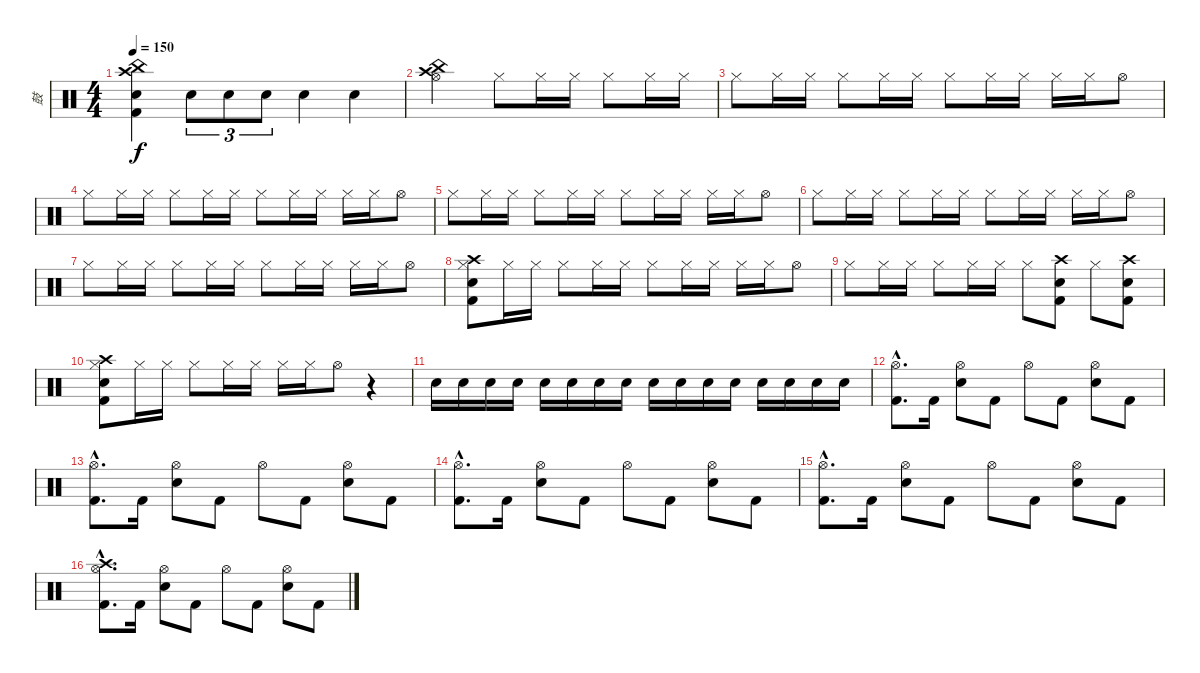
\track ("鼓" "鼓") {instrument percussion}
\staff {score}
\articulation defaults
\ts (4 4)
\tempo 150
\clef neutral
\ks c
("Snare (hit) 2" "Kick (hit) 2" "China (hit)" "Crash high (hit)").4{dy f} "Snare (hit) 2".8{tu (3 2)} "Snare (hit) 2".8{tu (3 2)} "Snare (hit) 2".8{tu (3 2)} "Snare (hit) 2".4 "Snare (hit) 2".4 |
("China (hit)" "Hi-Hat (open)" "Crash high (hit)").2 "Hi-Hat (closed)".8 "Hi-Hat (closed)".16 "Hi-Hat (closed)".16 "Hi-Hat (closed)".8 "Hi-Hat (closed)".16 "Hi-Hat (closed)".16 |
"Hi-Hat (closed)".8 "Hi-Hat (closed)".16 "Hi-Hat (closed)".16 "Hi-Hat (closed)".8 "Hi-Hat (closed)".16 "Hi-Hat (closed)".16 "Hi-Hat (closed)".8 "Hi-Hat (closed)".16 "Hi-Hat (closed)".16 "Hi-Hat (closed)".16 "Hi-Hat (closed)".16 "Hi-Hat (open)".8 |
"Hi-Hat (closed)".8 "Hi-Hat (closed)".16 "Hi-Hat (closed)".16 "Hi-Hat (closed)".8 "Hi-Hat (closed)".16 "Hi-Hat (closed)".16 "Hi-Hat (closed)".8 "Hi-Hat (closed)".16 "Hi-Hat (closed)".16 "Hi-Hat (closed)".16 "Hi-Hat (closed)".16 "Hi-Hat (open)".8 |
"Hi-Hat (closed)".8 "Hi-Hat (closed)".16 "Hi-Hat (closed)".16 "Hi-Hat (closed)".8 "Hi-Hat (closed)".16 "Hi-Hat (closed)".16 "Hi-Hat (closed)".8 "Hi-Hat (closed)".16 "Hi-Hat (closed)".16 "Hi-Hat (closed)".16 "Hi-Hat (closed)".16 "Hi-Hat (open)".8 |
"Hi-Hat (closed)".8 "Hi-Hat (closed)".16 "Hi-Hat (closed)".16 "Hi-Hat (closed)".8 "Hi-Hat (closed)".16 "Hi-Hat (closed)".16 "Hi-Hat (closed)".8 "Hi-Hat (closed)".16 "Hi-Hat (closed)".16 "Hi-Hat (closed)".16 "Hi-Hat (closed)".16 "Hi-Hat (open)".8 |
"Hi-Hat (closed)".8 "Hi-Hat (closed)".16 "Hi-Hat (closed)".16 "Hi-Hat (closed)".8 "Hi-Hat (closed)".16 "Hi-Hat (closed)".16 "Hi-Hat (closed)".8 "Hi-Hat (closed)".16 "Hi-Hat (closed)".16 "Hi-Hat (closed)".16 "Hi-Hat (closed)".16 "Hi-Hat (open)".8 |
("Snare (hit) 2" "Kick (hit) 2" "Crash high (hit)" "Hi-Hat (closed)").8 "Hi-Hat (closed)".16 "Hi-Hat (closed)".16 "Hi-Hat (closed)".8 "Hi-Hat (closed)".16 "Hi-Hat (closed)".16 "Hi-Hat (closed)".8 "Hi-Hat (closed)".16 "Hi-Hat (closed)".16 "Hi-Hat (closed)".16 "Hi-Hat (closed)".16 "Hi-Hat (open)".8 |
"Hi-Hat (closed)".8 "Hi-Hat (closed)".16 "Hi-Hat (closed)".16 "Hi-Hat (closed)".8 "Hi-Hat (closed)".16 "Hi-Hat (closed)".16 "Hi-Hat (closed)".8 ("Kick (hit) 2" "Snare (hit) 2" "Crash high (hit)").8 "Hi-Hat (closed)".8 ("Crash high (hit)" "Snare (hit) 2" "Kick (hit) 2").8 |
("Snare (hit) 2" "Kick (hit) 2" "Crash high (hit)" "Hi-Hat (closed)").8 "Hi-Hat (closed)".16 "Hi-Hat (closed)".16 "Hi-Hat (closed)".8 "Hi-Hat (closed)".16 "Hi-Hat (closed)".16 "Hi-Hat (closed)".16 "Hi-Hat (closed)".16 "Hi-Hat (open)".8 r.4 |
"Electric Snare (hit)".16{volume 6} "Electric Snare (hit)".16 "Electric Snare (hit)".16 "Electric Snare (hit)".16 "Electric Snare (hit)".16{volume 8} "Electric Snare (hit)".16 "Electric Snare (hit)".16 "Electric Snare (hit)".16 "Electric Snare (hit)".16{volume 12} "Electric Snare (hit)".16 "Electric Snare (hit)".16 "Electric Snare (hit)".16 "Electric Snare (hit)".16{volume 16} "Electric Snare (hit)".16 "Electric Snare (hit)".16 "Electric Snare (hit)".16 |
("Hi-Hat (open)"{hac} "Kick (hit) 2"{hac}).8{d} "Kick (hit) 2".16 ("Hi-Hat (open)" "Electric Snare (hit)").8 "Kick (hit) 2".8 "Hi-Hat (open)".8 "Kick (hit) 2".8 ("Hi-Hat (open)" "Electric Snare (hit)").8 "Kick (hit) 2".8 |
("Hi-Hat (open)"{hac} "Kick (hit) 2"{hac}).8{d} "Kick (hit) 2".16 ("Hi-Hat (open)" "Electric Snare (hit)").8 "Kick (hit) 2".8 "Hi-Hat (open)".8 "Kick (hit) 2".8 ("Hi-Hat (open)" "Electric Snare (hit)").8 "Kick (hit) 2".8 |
("Hi-Hat (open)"{hac} "Kick (hit) 2"{hac}).8{d} "Kick (hit) 2".16 ("Hi-Hat (open)" "Electric Snare (hit)").8 "Kick (hit) 2".8 "Hi-Hat (open)".8 "Kick (hit) 2".8 ("Hi-Hat (open)" "Electric Snare (hit)").8 "Kick (hit) 2".8 |
("Hi-Hat (open)"{hac} "Kick (hit) 2"{hac}).8{d} "Kick (hit) 2".16 ("Hi-Hat (open)" "Electric Snare (hit)").8 "Kick (hit) 2".8 "Hi-Hat (open)".8 "Kick (hit) 2".8 ("Hi-Hat (open)" "Electric Snare (hit)").8 "Kick (hit) 2".8 |
("Crash high (hit)"{hac} "Hi-Hat (open)"{hac} "Kick (hit) 2"{hac}).8{d} "Kick (hit) 2".16 ("Hi-Hat (open)" "Electric Snare (hit)").8 "Kick (hit) 2".8 "Hi-Hat (open)".8 "Kick (hit) 2".8 ("Hi-Hat (open)" "Electric Snare (hit)").8 "Kick (hit) 2".8
